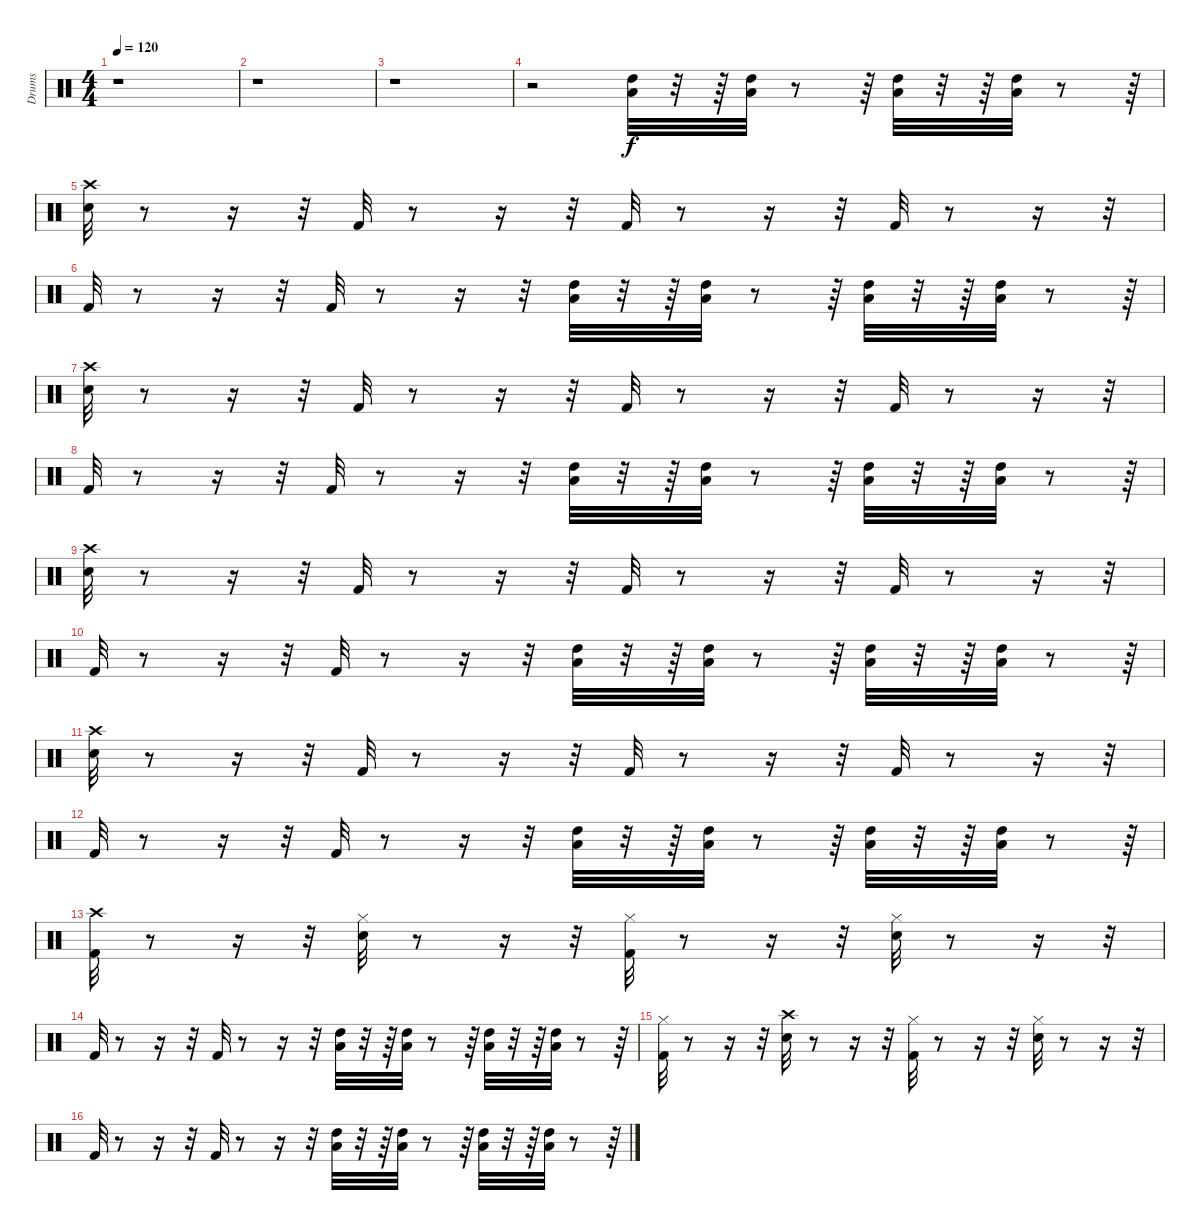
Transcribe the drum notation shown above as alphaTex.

\track ("Drums" "Drums") {instrument percussion}
\staff {score}
\articulation defaults
\ts (4 4)
\tempo 120
\clef neutral
\ks c
r.1{dy f} |
r.1 |
r.1 |
r.2 ("Low Tom (hit)" "High Tom (hit)").32 r.32 r.64 ("Low Tom (hit)" "High Tom (hit)").32 r.8 r.64 ("Low Tom (hit)" "High Tom (hit)").32 r.32 r.64 ("High Tom (hit)" "Low Tom (hit)").32 r.8 r.64 |
("Snare (hit) 2" "Crash high (hit)").32 r.8 r.16 r.32 "Kick (hit) 2".32 r.8 r.16 r.32 "Kick (hit) 2".32 r.8 r.16 r.32 "Kick (hit) 2".32 r.8 r.16 r.32 |
"Kick (hit) 2".32 r.8 r.16 r.32 "Kick (hit) 2".32 r.8 r.16 r.32 ("High Tom (hit)" "Low Tom (hit)").32 r.32 r.64 ("High Tom (hit)" "Low Tom (hit)").32 r.8 r.64 ("Low Tom (hit)" "High Tom (hit)").32 r.32 r.64 ("Low Tom (hit)" "High Tom (hit)").32 r.8 r.64 |
("Snare (hit) 2" "Crash high (hit)").32 r.8 r.16 r.32 "Kick (hit) 2".32 r.8 r.16 r.32 "Kick (hit) 2".32 r.8 r.16 r.32 "Kick (hit) 2".32 r.8 r.16 r.32 |
"Kick (hit) 2".32 r.8 r.16 r.32 "Kick (hit) 2".32 r.8 r.16 r.32 ("High Tom (hit)" "Low Tom (hit)").32 r.32 r.64 ("High Tom (hit)" "Low Tom (hit)").32 r.8 r.64 ("Low Tom (hit)" "High Tom (hit)").32 r.32 r.64 ("Low Tom (hit)" "High Tom (hit)").32 r.8 r.64 |
("Snare (hit) 2" "Crash high (hit)").32 r.8 r.16 r.32 "Kick (hit) 2".32 r.8 r.16 r.32 "Kick (hit) 2".32 r.8 r.16 r.32 "Kick (hit) 2".32 r.8 r.16 r.32 |
"Kick (hit) 2".32 r.8 r.16 r.32 "Kick (hit) 2".32 r.8 r.16 r.32 ("High Tom (hit)" "Low Tom (hit)").32 r.32 r.64 ("High Tom (hit)" "Low Tom (hit)").32 r.8 r.64 ("Low Tom (hit)" "High Tom (hit)").32 r.32 r.64 ("Low Tom (hit)" "High Tom (hit)").32 r.8 r.64 |
("Snare (hit) 2" "Crash high (hit)").32 r.8 r.16 r.32 "Kick (hit) 2".32 r.8 r.16 r.32 "Kick (hit) 2".32 r.8 r.16 r.32 "Kick (hit) 2".32 r.8 r.16 r.32 |
"Kick (hit) 2".32 r.8 r.16 r.32 "Kick (hit) 2".32 r.8 r.16 r.32 ("High Tom (hit)" "Low Tom (hit)").32 r.32 r.64 ("High Tom (hit)" "Low Tom (hit)").32 r.8 r.64 ("Low Tom (hit)" "High Tom (hit)").32 r.32 r.64 ("Low Tom (hit)" "High Tom (hit)").32 r.8 r.64 |
("Kick (hit) 2" "Crash high (hit)").32 r.8 r.16 r.32 ("Hi-Hat (closed)" "Snare (hit) 2").32 r.8 r.16 r.32 ("Hi-Hat (closed)" "Kick (hit) 2").32 r.8 r.16 r.32 ("Snare (hit) 2" "Hi-Hat (closed)").32 r.8 r.16 r.32 |
"Kick (hit) 2".32 r.8 r.16 r.32 "Kick (hit) 2".32 r.8 r.16 r.32 ("High Tom (hit)" "Low Tom (hit)").32 r.32 r.64 ("High Tom (hit)" "Low Tom (hit)").32 r.8 r.64 ("Low Tom (hit)" "High Tom (hit)").32 r.32 r.64 ("Low Tom (hit)" "High Tom (hit)").32 r.8 r.64 |
("Hi-Hat (closed)" "Kick (hit) 2").32 r.8 r.16 r.32 ("Snare (hit) 2" "Crash high (hit)").32 r.8 r.16 r.32 ("Kick (hit) 2" "Hi-Hat (closed)").32 r.8 r.16 r.32 ("Snare (hit) 2" "Hi-Hat (closed)").32 r.8 r.16 r.32 |
"Kick (hit) 2".32 r.8 r.16 r.32 "Kick (hit) 2".32 r.8 r.16 r.32 ("High Tom (hit)" "Low Tom (hit)").32 r.32 r.64 ("High Tom (hit)" "Low Tom (hit)").32 r.8 r.64 ("Low Tom (hit)" "High Tom (hit)").32 r.32 r.64 ("Low Tom (hit)" "High Tom (hit)").32 r.8 r.64
